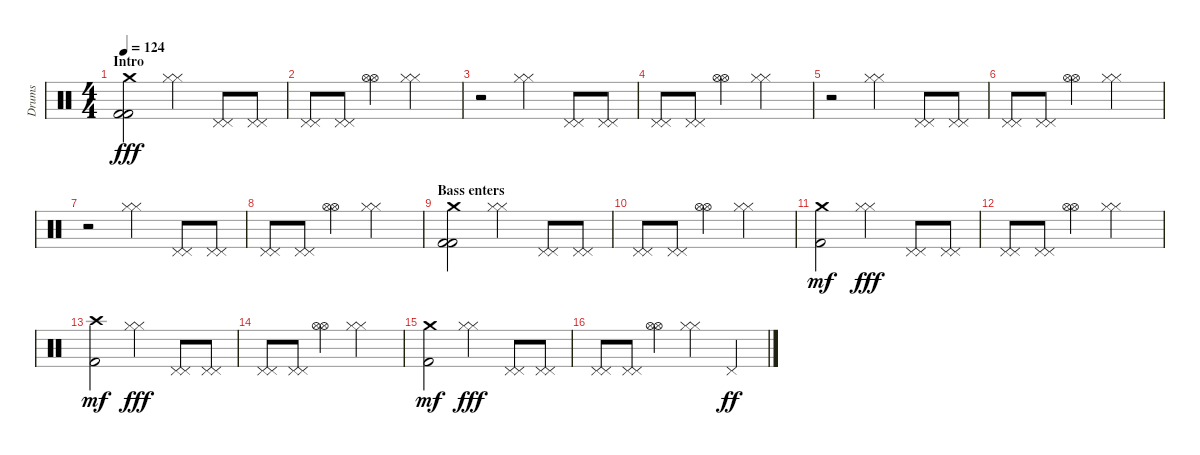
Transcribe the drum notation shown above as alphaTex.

\track ("Drums" "Drums") {instrument percussion}
\staff {score}
\articulation defaults
\ts (4 4)
\section ("" "Intro")
\tempo 124
\clef neutral
\ks c
("Crash medium (hit)" "Kick (hit) 2" "Kick (hit) 2").2{dy fff} ("Hi-Hat (closed)" "Hi-Hat (closed)").4 ("Pedal Hi-Hat (hit)" "Pedal Hi-Hat (hit)").8 ("Pedal Hi-Hat (hit)" "Pedal Hi-Hat (hit)").8 |
("Pedal Hi-Hat (hit)" "Pedal Hi-Hat (hit)").8 ("Pedal Hi-Hat (hit)" "Pedal Hi-Hat (hit)").8 ("Hi-Hat (open)" "Hi-Hat (open)").4 ("Hi-Hat (closed)" "Hi-Hat (closed)").2 |
r.2 ("Hi-Hat (closed)" "Hi-Hat (closed)").4 ("Pedal Hi-Hat (hit)" "Pedal Hi-Hat (hit)").8 ("Pedal Hi-Hat (hit)" "Pedal Hi-Hat (hit)").8 |
("Pedal Hi-Hat (hit)" "Pedal Hi-Hat (hit)").8 ("Pedal Hi-Hat (hit)" "Pedal Hi-Hat (hit)").8 ("Hi-Hat (open)" "Hi-Hat (open)").4 ("Hi-Hat (closed)" "Hi-Hat (closed)").2 |
r.2 ("Hi-Hat (closed)" "Hi-Hat (closed)").4 ("Pedal Hi-Hat (hit)" "Pedal Hi-Hat (hit)").8 ("Pedal Hi-Hat (hit)" "Pedal Hi-Hat (hit)").8 |
("Pedal Hi-Hat (hit)" "Pedal Hi-Hat (hit)").8 ("Pedal Hi-Hat (hit)" "Pedal Hi-Hat (hit)").8 ("Hi-Hat (open)" "Hi-Hat (open)").4 ("Hi-Hat (closed)" "Hi-Hat (closed)").2 |
r.2 ("Hi-Hat (closed)" "Hi-Hat (closed)").4 ("Pedal Hi-Hat (hit)" "Pedal Hi-Hat (hit)").8 ("Pedal Hi-Hat (hit)" "Pedal Hi-Hat (hit)").8 |
("Pedal Hi-Hat (hit)" "Pedal Hi-Hat (hit)").8 ("Pedal Hi-Hat (hit)" "Pedal Hi-Hat (hit)").8 ("Hi-Hat (open)" "Hi-Hat (open)").4 ("Hi-Hat (closed)" "Hi-Hat (closed)").2 |
\section ("" "Bass enters")
("Crash medium (hit)" "Kick (hit) 2" "Kick (hit) 2").2 ("Hi-Hat (closed)" "Hi-Hat (closed)").4 ("Pedal Hi-Hat (hit)" "Pedal Hi-Hat (hit)").8 ("Pedal Hi-Hat (hit)" "Pedal Hi-Hat (hit)").8 |
("Pedal Hi-Hat (hit)" "Pedal Hi-Hat (hit)").8 ("Pedal Hi-Hat (hit)" "Pedal Hi-Hat (hit)").8 ("Hi-Hat (open)" "Hi-Hat (open)").4 ("Hi-Hat (closed)" "Hi-Hat (closed)").2 |
("Crash medium (hit)" "Kick (hit) 2").2{dy mf balance 0} ("Hi-Hat (closed)" "Hi-Hat (closed)").4{dy fff balance 8} ("Pedal Hi-Hat (hit)" "Pedal Hi-Hat (hit)").8 ("Pedal Hi-Hat (hit)" "Pedal Hi-Hat (hit)").8 |
("Pedal Hi-Hat (hit)" "Pedal Hi-Hat (hit)").8 ("Pedal Hi-Hat (hit)" "Pedal Hi-Hat (hit)").8 ("Hi-Hat (open)" "Hi-Hat (open)").4 ("Hi-Hat (closed)" "Hi-Hat (closed)").2 |
("Crash high (hit)" "Kick (hit) 2").2{dy mf balance 16} ("Hi-Hat (closed)" "Hi-Hat (closed)").4{dy fff balance 8} ("Pedal Hi-Hat (hit)" "Pedal Hi-Hat (hit)").8 ("Pedal Hi-Hat (hit)" "Pedal Hi-Hat (hit)").8 |
("Pedal Hi-Hat (hit)" "Pedal Hi-Hat (hit)").8 ("Pedal Hi-Hat (hit)" "Pedal Hi-Hat (hit)").8 ("Hi-Hat (open)" "Hi-Hat (open)").4 ("Hi-Hat (closed)" "Hi-Hat (closed)").2 |
("Crash medium (hit)" "Kick (hit) 2").2{dy mf balance 0} ("Hi-Hat (closed)" "Hi-Hat (closed)").4{dy fff balance 8} ("Pedal Hi-Hat (hit)" "Pedal Hi-Hat (hit)").8 ("Pedal Hi-Hat (hit)" "Pedal Hi-Hat (hit)").8 |
("Pedal Hi-Hat (hit)" "Pedal Hi-Hat (hit)").8 ("Pedal Hi-Hat (hit)" "Pedal Hi-Hat (hit)").8 ("Hi-Hat (open)" "Hi-Hat (open)").4 ("Hi-Hat (closed)" "Hi-Hat (closed)").4 "Pedal Hi-Hat (hit)".4{dy ff}
